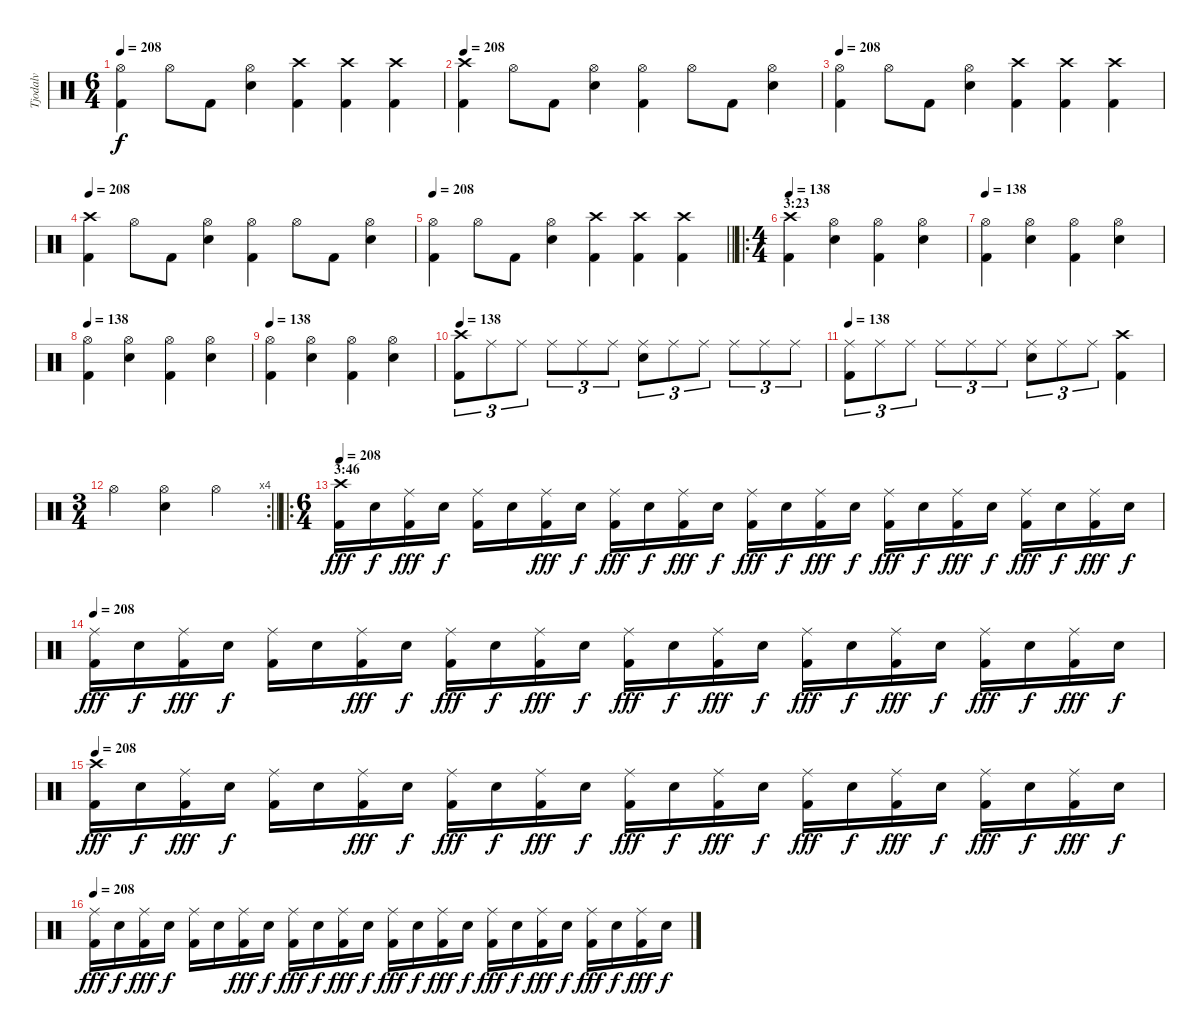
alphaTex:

\track ("Tjodalv" "Tjodalv") {instrument percussion}
\staff {score}
\articulation defaults
\ts (6 4)
\tempo 208
\clef neutral
\ks c
("Kick (hit) 2" "Hi-Hat (open)").4{dy f} "Hi-Hat (open)".8 "Kick (hit) 2".8 ("Snare (hit) 2" "Hi-Hat (open)").4 ("Kick (hit) 2" "Crash high (hit)").4 ("Kick (hit) 2" "Crash high (hit)").4 ("Kick (hit) 2" "Crash high (hit)").4 |
\tempo 208
("Kick (hit) 2" "Crash high (hit)").4 "Hi-Hat (open)".8 "Kick (hit) 2".8 ("Snare (hit) 2" "Hi-Hat (open)").4 ("Kick (hit) 2" "Hi-Hat (open)").4 "Hi-Hat (open)".8 "Kick (hit) 2".8 ("Snare (hit) 2" "Hi-Hat (open)").4 |
\tempo 208
("Kick (hit) 2" "Hi-Hat (open)").4 "Hi-Hat (open)".8 "Kick (hit) 2".8 ("Snare (hit) 2" "Hi-Hat (open)").4 ("Kick (hit) 2" "Crash high (hit)").4 ("Kick (hit) 2" "Crash high (hit)").4 ("Kick (hit) 2" "Crash high (hit)").4 |
\tempo 208
("Kick (hit) 2" "Crash high (hit)").4 "Hi-Hat (open)".8 "Kick (hit) 2".8 ("Snare (hit) 2" "Hi-Hat (open)").4 ("Kick (hit) 2" "Hi-Hat (open)").4 "Hi-Hat (open)".8 "Kick (hit) 2".8 ("Snare (hit) 2" "Hi-Hat (open)").4 |
\tempo 208
\barLineRight lightlight
("Kick (hit) 2" "Hi-Hat (open)").4 "Hi-Hat (open)".8 "Kick (hit) 2".8 ("Snare (hit) 2" "Hi-Hat (open)").4 ("Kick (hit) 2" "Crash high (hit)").4 ("Kick (hit) 2" "Crash high (hit)").4 ("Kick (hit) 2" "Crash high (hit)").4 |
\ro
\ts (4 4)
\section ("" "3:23")
\tempo 138
("Kick (hit) 2" "Crash high (hit)").4 ("Snare (hit) 2" "Hi-Hat (open)").4 ("Kick (hit) 2" "Hi-Hat (open)").4 ("Snare (hit) 2" "Hi-Hat (open)").4 |
\tempo 138
("Kick (hit) 2" "Hi-Hat (open)").4 ("Snare (hit) 2" "Hi-Hat (open)").4 ("Kick (hit) 2" "Hi-Hat (open)").4 ("Snare (hit) 2" "Hi-Hat (open)").4 |
\tempo 138
("Kick (hit) 2" "Hi-Hat (open)").4 ("Snare (hit) 2" "Hi-Hat (open)").4 ("Kick (hit) 2" "Hi-Hat (open)").4 ("Snare (hit) 2" "Hi-Hat (open)").4 |
\tempo 138
("Kick (hit) 2" "Hi-Hat (open)").4 ("Snare (hit) 2" "Hi-Hat (open)").4 ("Kick (hit) 2" "Hi-Hat (open)").4 ("Snare (hit) 2" "Hi-Hat (open)").4 |
\tempo 138
("Kick (hit) 2" "Crash high (hit)").8{tu (3 2)} "Ride (middle)".8{tu (3 2)} "Ride (middle)".8{tu (3 2)} "Ride (middle)".8{tu (3 2)} "Ride (middle)".8{tu (3 2)} "Ride (middle)".8{tu (3 2)} ("Snare (hit) 2" "Ride (middle)").8{tu (3 2)} "Ride (middle)".8{tu (3 2)} "Ride (middle)".8{tu (3 2)} "Ride (middle)".8{tu (3 2)} "Ride (middle)".8{tu (3 2)} "Ride (middle)".8{tu (3 2)} |
\tempo 138
("Kick (hit) 2" "Ride (middle)").8{tu (3 2)} "Ride (middle)".8{tu (3 2)} "Ride (middle)".8{tu (3 2)} "Ride (middle)".8{tu (3 2)} "Ride (middle)".8{tu (3 2)} "Ride (middle)".8{tu (3 2)} ("Snare (hit) 2" "Ride (middle)").8{tu (3 2)} "Ride (middle)".8{tu (3 2)} "Ride (middle)".8{tu (3 2)} ("Kick (hit) 2" "Crash high (hit)").4 |
\rc 4
\ts (3 4)
\barLineRight lightlight "Hi-Hat (open)".4
("Snare (hit) 2" "Hi-Hat (open)").4 "Hi-Hat (open)".4 |
\ro
\ts (6 4)
\section ("" "3:46")
\tempo 208
("Kick (hit) 2" "Crash high (hit)").16{dy fff} "Snare (hit) 2".16{dy f} ("Kick (hit) 2" "Ride (middle)").16{dy fff} "Snare (hit) 2".16{dy f} ("Kick (hit) 2" "Ride (middle)").16 "Snare (hit) 2".16 ("Kick (hit) 2" "Ride (middle)").16{dy fff} "Snare (hit) 2".16{dy f} ("Kick (hit) 2" "Ride (middle)").16{dy fff} "Snare (hit) 2".16{dy f} ("Kick (hit) 2" "Ride (middle)").16{dy fff} "Snare (hit) 2".16{dy f} ("Kick (hit) 2" "Ride (middle)").16{dy fff} "Snare (hit) 2".16{dy f} ("Kick (hit) 2" "Ride (middle)").16{dy fff} "Snare (hit) 2".16{dy f} ("Kick (hit) 2" "Ride (middle)").16{dy fff} "Snare (hit) 2".16{dy f} ("Kick (hit) 2" "Ride (middle)").16{dy fff} "Snare (hit) 2".16{dy f} ("Kick (hit) 2" "Ride (middle)").16{dy fff} "Snare (hit) 2".16{dy f} ("Kick (hit) 2" "Ride (middle)").16{dy fff} "Snare (hit) 2".16{dy f} |
\tempo 208
("Kick (hit) 2" "Ride (middle)").16{dy fff} "Snare (hit) 2".16{dy f} ("Kick (hit) 2" "Ride (middle)").16{dy fff} "Snare (hit) 2".16{dy f} ("Kick (hit) 2" "Ride (middle)").16 "Snare (hit) 2".16 ("Kick (hit) 2" "Ride (middle)").16{dy fff} "Snare (hit) 2".16{dy f} ("Kick (hit) 2" "Ride (middle)").16{dy fff} "Snare (hit) 2".16{dy f} ("Kick (hit) 2" "Ride (middle)").16{dy fff} "Snare (hit) 2".16{dy f} ("Kick (hit) 2" "Ride (middle)").16{dy fff} "Snare (hit) 2".16{dy f} ("Kick (hit) 2" "Ride (middle)").16{dy fff} "Snare (hit) 2".16{dy f} ("Kick (hit) 2" "Ride (middle)").16{dy fff} "Snare (hit) 2".16{dy f} ("Kick (hit) 2" "Ride (middle)").16{dy fff} "Snare (hit) 2".16{dy f} ("Kick (hit) 2" "Ride (middle)").16{dy fff} "Snare (hit) 2".16{dy f} ("Kick (hit) 2" "Ride (middle)").16{dy fff} "Snare (hit) 2".16{dy f} |
\tempo 208
("Kick (hit) 2" "Crash high (hit)").16{dy fff} "Snare (hit) 2".16{dy f} ("Kick (hit) 2" "Ride (middle)").16{dy fff} "Snare (hit) 2".16{dy f} ("Kick (hit) 2" "Ride (middle)").16 "Snare (hit) 2".16 ("Kick (hit) 2" "Ride (middle)").16{dy fff} "Snare (hit) 2".16{dy f} ("Kick (hit) 2" "Ride (middle)").16{dy fff} "Snare (hit) 2".16{dy f} ("Kick (hit) 2" "Ride (middle)").16{dy fff} "Snare (hit) 2".16{dy f} ("Kick (hit) 2" "Ride (middle)").16{dy fff} "Snare (hit) 2".16{dy f} ("Kick (hit) 2" "Ride (middle)").16{dy fff} "Snare (hit) 2".16{dy f} ("Kick (hit) 2" "Ride (middle)").16{dy fff} "Snare (hit) 2".16{dy f} ("Kick (hit) 2" "Ride (middle)").16{dy fff} "Snare (hit) 2".16{dy f} ("Kick (hit) 2" "Ride (middle)").16{dy fff} "Snare (hit) 2".16{dy f} ("Kick (hit) 2" "Ride (middle)").16{dy fff} "Snare (hit) 2".16{dy f} |
\tempo 208
("Kick (hit) 2" "Ride (middle)").16{dy fff} "Snare (hit) 2".16{dy f} ("Kick (hit) 2" "Ride (middle)").16{dy fff} "Snare (hit) 2".16{dy f} ("Kick (hit) 2" "Ride (middle)").16 "Snare (hit) 2".16 ("Kick (hit) 2" "Ride (middle)").16{dy fff} "Snare (hit) 2".16{dy f} ("Kick (hit) 2" "Ride (middle)").16{dy fff} "Snare (hit) 2".16{dy f} ("Kick (hit) 2" "Ride (middle)").16{dy fff} "Snare (hit) 2".16{dy f} ("Kick (hit) 2" "Ride (middle)").16{dy fff} "Snare (hit) 2".16{dy f} ("Kick (hit) 2" "Ride (middle)").16{dy fff} "Snare (hit) 2".16{dy f} ("Kick (hit) 2" "Ride (middle)").16{dy fff} "Snare (hit) 2".16{dy f} ("Kick (hit) 2" "Ride (middle)").16{dy fff} "Snare (hit) 2".16{dy f} ("Kick (hit) 2" "Ride (middle)").16{dy fff} "Snare (hit) 2".16{dy f} ("Kick (hit) 2" "Ride (middle)").16{dy fff} "Snare (hit) 2".16{dy f}
